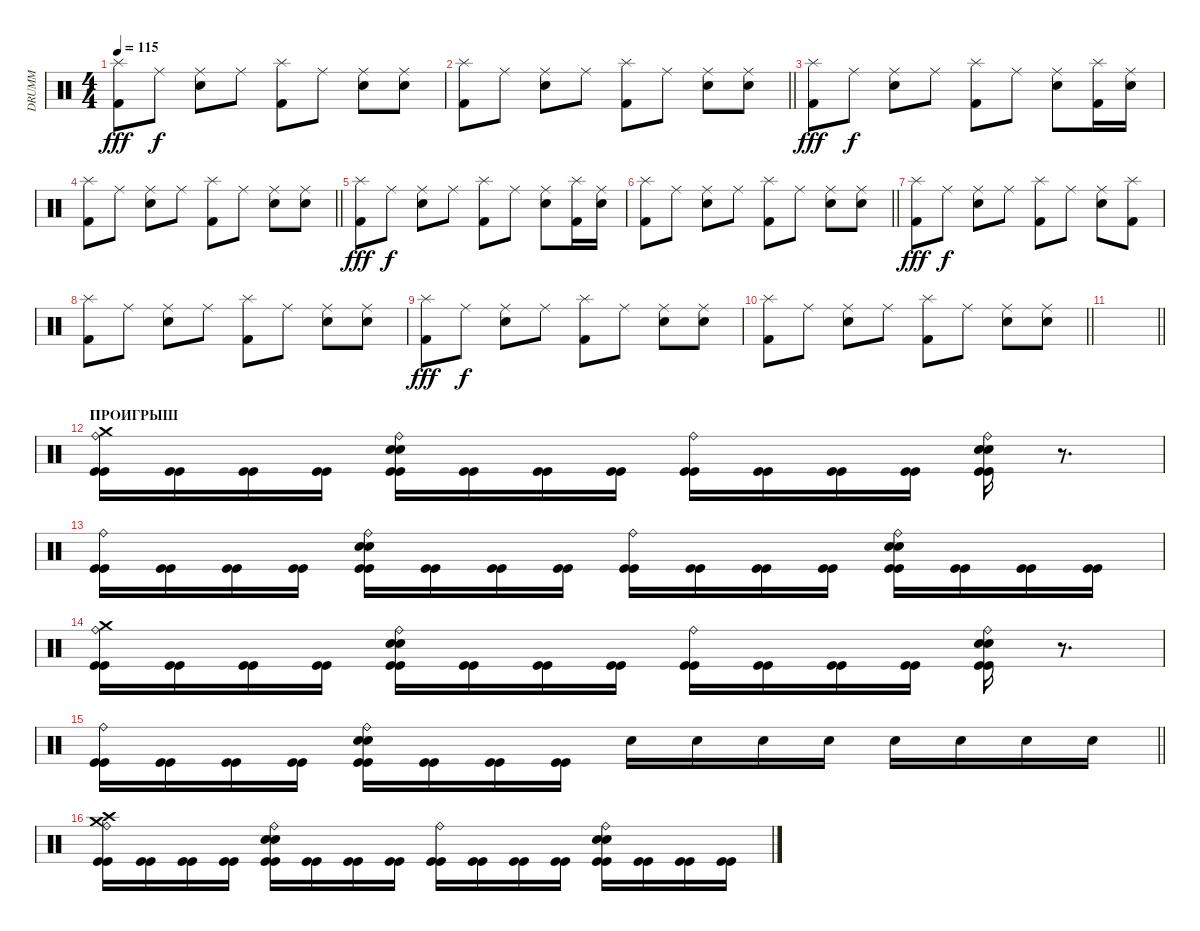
\track ("DRUMM" "DRUMM") {instrument percussion}
\staff {score}
\articulation defaults
\ts (4 4)
\tempo 115
\clef neutral
\ks c
("Kick (hit) 2" "Splash (hit)").8{dy fff} "Ride (middle)".8{dy f} ("Ride (middle)" "Electric Snare (hit)").8 "Ride (middle)".8 ("Kick (hit) 2" "Splash (hit)").8 "Ride (middle)".8 ("Ride (middle)" "Electric Snare (hit)").8 ("Ride (middle)" "Electric Snare (hit)").8 |
\barLineRight lightlight
("Kick (hit) 2" "Splash (hit)").8 "Ride (middle)".8 ("Ride (middle)" "Electric Snare (hit)").8 "Ride (middle)".8 ("Kick (hit) 2" "Splash (hit)").8 "Ride (middle)".8 ("Ride (middle)" "Electric Snare (hit)").8 ("Ride (middle)" "Electric Snare (hit)").8 |
("Kick (hit) 2" "Splash (hit)").8{dy fff} "Ride (middle)".8{dy f} ("Ride (middle)" "Electric Snare (hit)").8 "Ride (middle)".8 ("Kick (hit) 2" "Splash (hit)").8 "Ride (middle)".8 ("Ride (middle)" "Electric Snare (hit)").8 ("Kick (hit) 2" "Splash (hit)").16 ("Ride (middle)" "Electric Snare (hit)").16 |
\barLineRight lightlight
("Kick (hit) 2" "Splash (hit)").8 "Ride (middle)".8 ("Ride (middle)" "Electric Snare (hit)").8 "Ride (middle)".8 ("Kick (hit) 2" "Splash (hit)").8 "Ride (middle)".8 ("Ride (middle)" "Electric Snare (hit)").8 ("Ride (middle)" "Electric Snare (hit)").8 |
("Kick (hit) 2" "Splash (hit)").8{dy fff} "Ride (middle)".8{dy f} ("Ride (middle)" "Electric Snare (hit)").8 "Ride (middle)".8 ("Kick (hit) 2" "Splash (hit)").8 "Ride (middle)".8 ("Ride (middle)" "Electric Snare (hit)").8 ("Kick (hit) 2" "Splash (hit)").16 ("Ride (middle)" "Electric Snare (hit)").16 |
\barLineRight lightlight
("Kick (hit) 2" "Splash (hit)").8 "Ride (middle)".8 ("Ride (middle)" "Electric Snare (hit)").8 "Ride (middle)".8 ("Kick (hit) 2" "Splash (hit)").8 "Ride (middle)".8 ("Ride (middle)" "Electric Snare (hit)").8 ("Ride (middle)" "Electric Snare (hit)").8 |
("Kick (hit) 2" "Splash (hit)").8{dy fff} "Ride (middle)".8{dy f} ("Ride (middle)" "Electric Snare (hit)").8 "Ride (middle)".8 ("Kick (hit) 2" "Splash (hit)").8 "Ride (middle)".8 ("Ride (middle)" "Electric Snare (hit)").8 ("Kick (hit) 2" "Splash (hit)").8 |
("Kick (hit) 2" "Splash (hit)").8 "Ride (middle)".8 ("Ride (middle)" "Electric Snare (hit)").8 "Ride (middle)".8 ("Kick (hit) 2" "Splash (hit)").8 "Ride (middle)".8 ("Ride (middle)" "Electric Snare (hit)").8 ("Ride (middle)" "Electric Snare (hit)").8 |
("Kick (hit) 2" "Splash (hit)").8{dy fff} "Ride (middle)".8{dy f} ("Ride (middle)" "Electric Snare (hit)").8 "Ride (middle)".8 ("Kick (hit) 2" "Splash (hit)").8 "Ride (middle)".8 ("Ride (middle)" "Electric Snare (hit)").8 ("Ride (middle)" "Electric Snare (hit)").8 |
\barLineRight lightlight
("Kick (hit) 2" "Splash (hit)").8 "Ride (middle)".8 ("Ride (middle)" "Electric Snare (hit)").8 "Ride (middle)".8 ("Kick (hit) 2" "Splash (hit)").8 "Ride (middle)".8 ("Ride (middle)" "Electric Snare (hit)").8 ("Ride (middle)" "Electric Snare (hit)").8 |
\barLineRight lightlight
|
\section ("" "ПРОИГРЫШ")
("Ride (bell)" "Crash medium (hit)" "Kick (hit)" "Kick (hit)").16 ("Kick (hit)" "Kick (hit)").16 ("Kick (hit)" "Kick (hit)").16 ("Kick (hit)" "Kick (hit)").16 ("Ride (bell)" "Snare (hit) 2" "Snare (hit) 2" "Kick (hit)" "Kick (hit)").16 ("Kick (hit)" "Kick (hit)").16 ("Kick (hit)" "Kick (hit)").16 ("Kick (hit)" "Kick (hit)").16 ("Ride (bell)" "Kick (hit)" "Kick (hit)").16 ("Kick (hit)" "Kick (hit)").16 ("Kick (hit)" "Kick (hit)").16 ("Kick (hit)" "Kick (hit)").16 ("Ride (bell)" "Snare (hit) 2" "Snare (hit) 2" "Kick (hit)" "Kick (hit)").16 r.8{d} |
("Ride (bell)" "Kick (hit)" "Kick (hit)").16 ("Kick (hit)" "Kick (hit)").16 ("Kick (hit)" "Kick (hit)").16 ("Kick (hit)" "Kick (hit)").16 ("Ride (bell)" "Snare (hit) 2" "Snare (hit) 2" "Kick (hit)" "Kick (hit)").16 ("Kick (hit)" "Kick (hit)").16 ("Kick (hit)" "Kick (hit)").16 ("Kick (hit)" "Kick (hit)").16 ("Ride (bell)" "Kick (hit)" "Kick (hit)").16 ("Kick (hit)" "Kick (hit)").16 ("Kick (hit)" "Kick (hit)").16 ("Kick (hit)" "Kick (hit)").16 ("Ride (bell)" "Snare (hit) 2" "Snare (hit) 2" "Kick (hit)" "Kick (hit)").16 ("Kick (hit)" "Kick (hit)").16 ("Kick (hit)" "Kick (hit)").16 ("Kick (hit)" "Kick (hit)").16 |
("Ride (bell)" "Crash medium (hit)" "Kick (hit)" "Kick (hit)").16 ("Kick (hit)" "Kick (hit)").16 ("Kick (hit)" "Kick (hit)").16 ("Kick (hit)" "Kick (hit)").16 ("Ride (bell)" "Snare (hit) 2" "Snare (hit) 2" "Kick (hit)" "Kick (hit)").16 ("Kick (hit)" "Kick (hit)").16 ("Kick (hit)" "Kick (hit)").16 ("Kick (hit)" "Kick (hit)").16 ("Ride (bell)" "Kick (hit)" "Kick (hit)").16 ("Kick (hit)" "Kick (hit)").16 ("Kick (hit)" "Kick (hit)").16 ("Kick (hit)" "Kick (hit)").16 ("Ride (bell)" "Snare (hit) 2" "Snare (hit) 2" "Kick (hit)" "Kick (hit)").16 r.8{d} |
\barLineRight lightlight
("Ride (bell)" "Kick (hit)" "Kick (hit)").16 ("Kick (hit)" "Kick (hit)").16 ("Kick (hit)" "Kick (hit)").16 ("Kick (hit)" "Kick (hit)").16 ("Ride (bell)" "Snare (hit) 2" "Snare (hit) 2" "Kick (hit)" "Kick (hit)").16 ("Kick (hit)" "Kick (hit)").16 ("Kick (hit)" "Kick (hit)").16 ("Kick (hit)" "Kick (hit)").16 "Electric Snare (hit)".16 "Electric Snare (hit)".16 "Electric Snare (hit)".16 "Electric Snare (hit)".16 "Electric Snare (hit)".16 "Electric Snare (hit)".16 "Electric Snare (hit)".16 "Electric Snare (hit)".16 |
("Crash high (hit)" "Ride (bell)" "Crash medium (hit)" "Kick (hit)" "Kick (hit)").16 ("Kick (hit)" "Kick (hit)").16 ("Kick (hit)" "Kick (hit)").16 ("Kick (hit)" "Kick (hit)").16 ("Ride (bell)" "Snare (hit) 2" "Snare (hit) 2" "Kick (hit)" "Kick (hit)").16 ("Kick (hit)" "Kick (hit)").16 ("Kick (hit)" "Kick (hit)").16 ("Kick (hit)" "Kick (hit)").16 ("Ride (bell)" "Kick (hit)" "Kick (hit)").16 ("Kick (hit)" "Kick (hit)").16 ("Kick (hit)" "Kick (hit)").16 ("Kick (hit)" "Kick (hit)").16 ("Ride (bell)" "Snare (hit) 2" "Snare (hit) 2" "Kick (hit)" "Kick (hit)").16 ("Kick (hit)" "Kick (hit)").16 ("Kick (hit)" "Kick (hit)").16 ("Kick (hit)" "Kick (hit)").16
